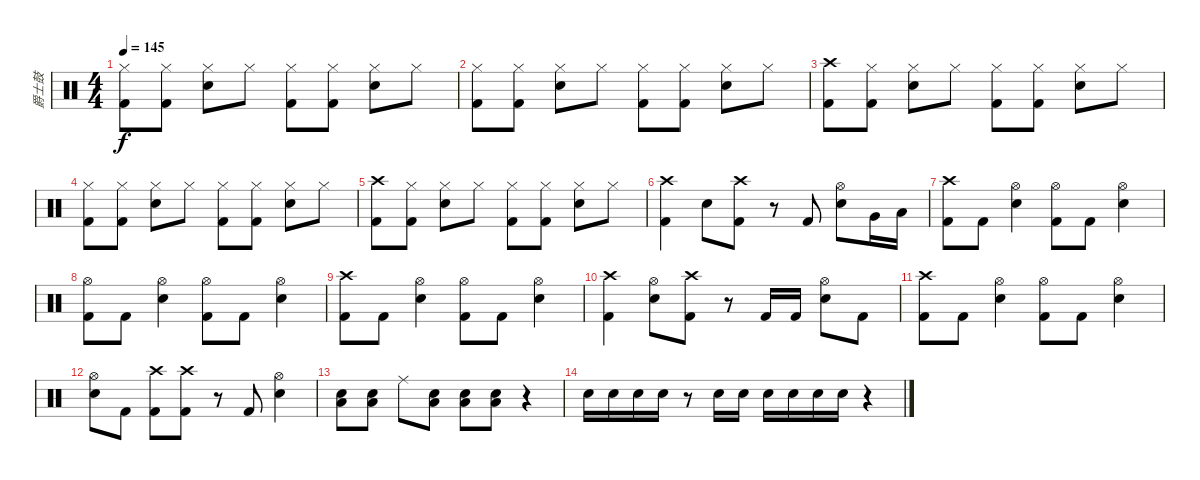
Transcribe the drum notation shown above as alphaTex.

\track ("爵士鼓" "爵士鼓") {instrument percussion}
\staff {score}
\articulation defaults
\ts (4 4)
\tempo 145
\clef neutral
\ks c
("Hi-Hat (closed)" "Kick (hit) 2").8{dy f} ("Hi-Hat (closed)" "Kick (hit) 2").8 ("Hi-Hat (closed)" "Electric Snare (hit)").8 "Hi-Hat (closed)".8 ("Hi-Hat (closed)" "Kick (hit) 2").8 ("Hi-Hat (closed)" "Kick (hit) 2").8 ("Hi-Hat (closed)" "Electric Snare (hit)").8 "Hi-Hat (closed)".8 |
("Hi-Hat (closed)" "Kick (hit) 2").8 ("Hi-Hat (closed)" "Kick (hit) 2").8 ("Hi-Hat (closed)" "Electric Snare (hit)").8 "Hi-Hat (closed)".8 ("Hi-Hat (closed)" "Kick (hit) 2").8 ("Hi-Hat (closed)" "Kick (hit) 2").8 ("Hi-Hat (closed)" "Electric Snare (hit)").8 "Hi-Hat (closed)".8 |
("Crash high (hit)" "Kick (hit) 2").8 ("Hi-Hat (closed)" "Kick (hit) 2").8 ("Hi-Hat (closed)" "Electric Snare (hit)").8 "Hi-Hat (closed)".8 ("Hi-Hat (closed)" "Kick (hit) 2").8 ("Hi-Hat (closed)" "Kick (hit) 2").8 ("Hi-Hat (closed)" "Electric Snare (hit)").8 "Hi-Hat (closed)".8 |
("Hi-Hat (closed)" "Kick (hit) 2").8 ("Hi-Hat (closed)" "Kick (hit) 2").8 ("Hi-Hat (closed)" "Electric Snare (hit)").8 "Hi-Hat (closed)".8 ("Hi-Hat (closed)" "Kick (hit) 2").8 ("Hi-Hat (closed)" "Kick (hit) 2").8 ("Hi-Hat (closed)" "Electric Snare (hit)").8 "Hi-Hat (closed)".8 |
("Crash high (hit)" "Kick (hit) 2").8 ("Hi-Hat (closed)" "Kick (hit) 2").8 ("Hi-Hat (closed)" "Electric Snare (hit)").8 "Hi-Hat (closed)".8 ("Hi-Hat (closed)" "Kick (hit) 2").8 ("Hi-Hat (closed)" "Kick (hit) 2").8 ("Hi-Hat (closed)" "Electric Snare (hit)").8 "Hi-Hat (closed)".8 |
("Crash high (hit)" "Kick (hit) 2").4 "Electric Snare (hit)".8 ("Crash high (hit)" "Kick (hit) 2").8 r.8 "Kick (hit) 2".8 ("Hi-Hat (open)" "Electric Snare (hit)").8 "Very Low Tom (hit)".16 "Low Floor Tom (hit)".16 |
("Crash high (hit)" "Kick (hit) 2").8 "Kick (hit) 2".8 ("Hi-Hat (open)" "Electric Snare (hit)").4 ("Hi-Hat (open)" "Kick (hit) 2").8 "Kick (hit) 2".8 ("Hi-Hat (open)" "Electric Snare (hit)").4 |
("Hi-Hat (open)" "Kick (hit) 2").8 "Kick (hit) 2".8 ("Hi-Hat (open)" "Electric Snare (hit)").4 ("Hi-Hat (open)" "Kick (hit) 2").8 "Kick (hit) 2".8 ("Hi-Hat (open)" "Electric Snare (hit)").4 |
("Crash high (hit)" "Kick (hit) 2").8 "Kick (hit) 2".8 ("Hi-Hat (open)" "Electric Snare (hit)").4 ("Hi-Hat (open)" "Kick (hit) 2").8 "Kick (hit) 2".8 ("Hi-Hat (open)" "Electric Snare (hit)").4 |
("Crash high (hit)" "Kick (hit) 2").4 ("Hi-Hat (open)" "Electric Snare (hit)").8 ("Crash high (hit)" "Kick (hit) 2").8 r.8 "Kick (hit) 2".16 "Kick (hit) 2".16 ("Hi-Hat (open)" "Electric Snare (hit)").8 "Kick (hit) 2".8 |
("Crash high (hit)" "Kick (hit) 2").8 "Kick (hit) 2".8 ("Hi-Hat (open)" "Electric Snare (hit)").4 ("Hi-Hat (open)" "Kick (hit) 2").8 "Kick (hit) 2".8 ("Hi-Hat (open)" "Electric Snare (hit)").4 |
("Hi-Hat (open)" "Electric Snare (hit)").8 "Kick (hit) 2".8 ("Crash high (hit)" "Kick (hit) 2").8 ("Crash high (hit)" "Kick (hit) 2").8 r.8 "Kick (hit) 2".8 ("Hi-Hat (open)" "Electric Snare (hit)").4 |
("Electric Snare (hit)" "Low Floor Tom (hit)").8 ("Electric Snare (hit)" "Low Floor Tom (hit)").8 "Ride (middle)".8 ("Electric Snare (hit)" "Low Floor Tom (hit)").8 ("Electric Snare (hit)" "Low Floor Tom (hit)").8 ("Electric Snare (hit)" "Low Floor Tom (hit)").8 r.4 |
"Electric Snare (hit)".16 "Electric Snare (hit)".16 "Electric Snare (hit)".16 "Electric Snare (hit)".16 r.8 "Electric Snare (hit)".16 "Electric Snare (hit)".16 "Electric Snare (hit)".16 "Electric Snare (hit)".16 "Electric Snare (hit)".16 "Electric Snare (hit)".16 r.4
